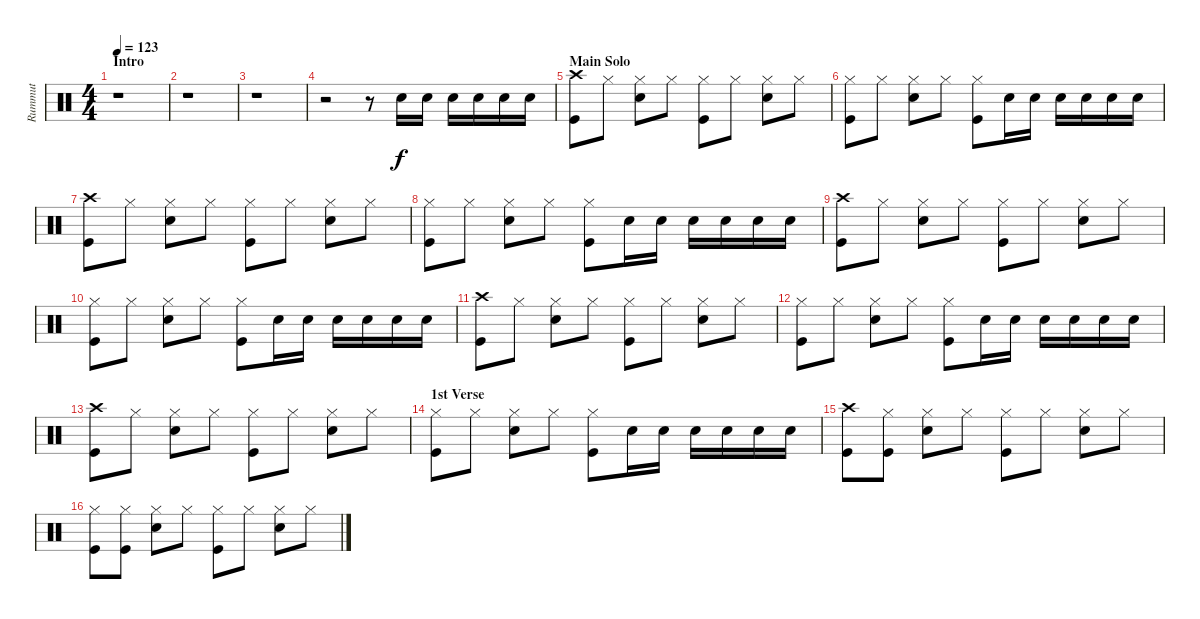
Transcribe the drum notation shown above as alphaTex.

\track ("Rummut" "Rummut") {instrument percussion}
\staff {score}
\articulation defaults
\ts (4 4)
\section ("" "Intro")
\tempo 123
\clef neutral
\ks c
r.1{dy f} |
r.1 |
r.1 |
r.2 r.8 "Snare (hit) 2".16 "Snare (hit) 2".16 "Snare (hit) 2".16 "Snare (hit) 2".16 "Snare (hit) 2".16 "Snare (hit) 2".16 |
\section ("" "Main Solo")
("Crash high (hit)" "Kick (hit)").8 "Hi-Hat (closed)".8 ("Hi-Hat (closed)" "Snare (hit) 2").8 "Hi-Hat (closed)".8 ("Hi-Hat (closed)" "Kick (hit)").8 "Hi-Hat (closed)".8 ("Hi-Hat (closed)" "Snare (hit) 2").8 "Hi-Hat (closed)".8 |
("Hi-Hat (closed)" "Kick (hit)").8 "Hi-Hat (closed)".8 ("Hi-Hat (closed)" "Snare (hit) 2").8 "Hi-Hat (closed)".8 ("Hi-Hat (closed)" "Kick (hit)").8 "Snare (hit) 2".16 "Snare (hit) 2".16 "Snare (hit) 2".16 "Snare (hit) 2".16 "Snare (hit) 2".16 "Snare (hit) 2".16 |
("Crash high (hit)" "Kick (hit)").8 "Hi-Hat (closed)".8 ("Hi-Hat (closed)" "Snare (hit) 2").8 "Hi-Hat (closed)".8 ("Hi-Hat (closed)" "Kick (hit)").8 "Hi-Hat (closed)".8 ("Hi-Hat (closed)" "Snare (hit) 2").8 "Hi-Hat (closed)".8 |
("Hi-Hat (closed)" "Kick (hit)").8 "Hi-Hat (closed)".8 ("Hi-Hat (closed)" "Snare (hit) 2").8 "Hi-Hat (closed)".8 ("Hi-Hat (closed)" "Kick (hit)").8 "Snare (hit) 2".16 "Snare (hit) 2".16 "Snare (hit) 2".16 "Snare (hit) 2".16 "Snare (hit) 2".16 "Snare (hit) 2".16 |
("Crash high (hit)" "Kick (hit)").8 "Hi-Hat (closed)".8 ("Hi-Hat (closed)" "Snare (hit) 2").8 "Hi-Hat (closed)".8 ("Hi-Hat (closed)" "Kick (hit)").8 "Hi-Hat (closed)".8 ("Hi-Hat (closed)" "Snare (hit) 2").8 "Hi-Hat (closed)".8 |
("Hi-Hat (closed)" "Kick (hit)").8 "Hi-Hat (closed)".8 ("Hi-Hat (closed)" "Snare (hit) 2").8 "Hi-Hat (closed)".8 ("Hi-Hat (closed)" "Kick (hit)").8 "Snare (hit) 2".16 "Snare (hit) 2".16 "Snare (hit) 2".16 "Snare (hit) 2".16 "Snare (hit) 2".16 "Snare (hit) 2".16 |
("Crash high (hit)" "Kick (hit)").8 "Hi-Hat (closed)".8 ("Hi-Hat (closed)" "Snare (hit) 2").8 "Hi-Hat (closed)".8 ("Hi-Hat (closed)" "Kick (hit)").8 "Hi-Hat (closed)".8 ("Hi-Hat (closed)" "Snare (hit) 2").8 "Hi-Hat (closed)".8 |
("Hi-Hat (closed)" "Kick (hit)").8 "Hi-Hat (closed)".8 ("Hi-Hat (closed)" "Snare (hit) 2").8 "Hi-Hat (closed)".8 ("Hi-Hat (closed)" "Kick (hit)").8 "Snare (hit) 2".16 "Snare (hit) 2".16 "Snare (hit) 2".16 "Snare (hit) 2".16 "Snare (hit) 2".16 "Snare (hit) 2".16 |
("Crash high (hit)" "Kick (hit)").8 "Hi-Hat (closed)".8 ("Hi-Hat (closed)" "Snare (hit) 2").8 "Hi-Hat (closed)".8 ("Hi-Hat (closed)" "Kick (hit)").8 "Hi-Hat (closed)".8 ("Hi-Hat (closed)" "Snare (hit) 2").8 "Hi-Hat (closed)".8 |
\section ("" "1st Verse")
("Hi-Hat (closed)" "Kick (hit)").8 "Hi-Hat (closed)".8 ("Hi-Hat (closed)" "Snare (hit) 2").8 "Hi-Hat (closed)".8 ("Hi-Hat (closed)" "Kick (hit)").8 "Snare (hit) 2".16 "Snare (hit) 2".16 "Snare (hit) 2".16 "Snare (hit) 2".16 "Snare (hit) 2".16 "Snare (hit) 2".16 |
("Crash high (hit)" "Kick (hit)").8 ("Hi-Hat (closed)" "Kick (hit)").8 ("Hi-Hat (closed)" "Snare (hit) 2").8 "Hi-Hat (closed)".8 ("Hi-Hat (closed)" "Kick (hit)").8 "Hi-Hat (closed)".8 ("Hi-Hat (closed)" "Snare (hit) 2").8 "Hi-Hat (closed)".8 |
("Hi-Hat (closed)" "Kick (hit)").8 ("Hi-Hat (closed)" "Kick (hit)").8 ("Hi-Hat (closed)" "Snare (hit) 2").8 "Hi-Hat (closed)".8 ("Hi-Hat (closed)" "Kick (hit)").8 "Hi-Hat (closed)".8 ("Hi-Hat (closed)" "Snare (hit) 2").8 "Hi-Hat (closed)".8
